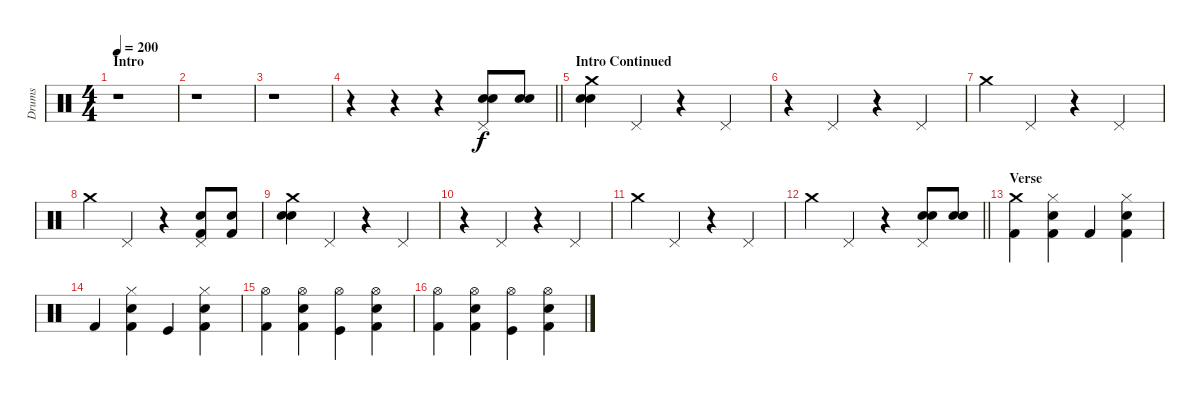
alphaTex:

\track ("Drums" "Drums") {instrument percussion}
\staff {score}
\articulation defaults
\ts (4 4)
\section ("" "Intro")
\tempo 200
\clef neutral
\ks c
r.1{dy f} |
r.1 |
r.1 |
\barLineRight lightlight
r.4 r.4 r.4 ("Pedal Hi-Hat (hit)" "Electric Snare (hit)" "Snare (hit) 2").8 ("Electric Snare (hit)" "Snare (hit) 2").8 |
\section ("" "Intro Continued")
("Crash medium (hit)" "Electric Snare (hit)" "Electric Snare (hit)").4 "Pedal Hi-Hat (hit)".4 r.4 "Pedal Hi-Hat (hit)".4 |
r.4 "Pedal Hi-Hat (hit)".4 r.4 "Pedal Hi-Hat (hit)".4 |
"Crash medium (hit)".4 "Pedal Hi-Hat (hit)".4 r.4 "Pedal Hi-Hat (hit)".4 |
"Crash medium (hit)".4 "Pedal Hi-Hat (hit)".4 r.4 ("Pedal Hi-Hat (hit)" "Kick (hit) 2" "Electric Snare (hit)").8 ("Kick (hit) 2" "Electric Snare (hit)").8 |
("Crash medium (hit)" "Electric Snare (hit)" "Electric Snare (hit)").4 "Pedal Hi-Hat (hit)".4 r.4 "Pedal Hi-Hat (hit)".4 |
r.4 "Pedal Hi-Hat (hit)".4 r.4 "Pedal Hi-Hat (hit)".4 |
"Crash medium (hit)".4 "Pedal Hi-Hat (hit)".4 r.4 "Pedal Hi-Hat (hit)".4 |
\barLineRight lightlight "Crash medium (hit)".4 "Pedal Hi-Hat (hit)".4
r.4 ("Pedal Hi-Hat (hit)" "Electric Snare (hit)" "Snare (hit) 2").8 ("Electric Snare (hit)" "Snare (hit) 2").8 |
\section ("" "Verse")
("Crash medium (hit)" "Kick (hit) 2").4 ("Hi-Hat (closed)" "Electric Snare (hit)" "Kick (hit) 2").4 "Kick (hit) 2".4 ("Hi-Hat (closed)" "Electric Snare (hit)" "Kick (hit) 2").4 |
"Kick (hit) 2".4 ("Hi-Hat (closed)" "Electric Snare (hit)" "Kick (hit) 2").4 "Kick (hit)".4 ("Hi-Hat (closed)" "Electric Snare (hit)" "Kick (hit) 2").4 |
("Hi-Hat (open)" "Kick (hit) 2").4 ("Hi-Hat (open)" "Snare (hit) 2" "Kick (hit) 2").4 ("Hi-Hat (open)" "Kick (hit)").4 ("Hi-Hat (open)" "Snare (hit) 2" "Kick (hit) 2").4 |
("Hi-Hat (open)" "Kick (hit) 2").4 ("Hi-Hat (open)" "Snare (hit) 2" "Kick (hit) 2").4 ("Hi-Hat (open)" "Kick (hit)").4 ("Hi-Hat (open)" "Snare (hit) 2" "Kick (hit) 2").4
